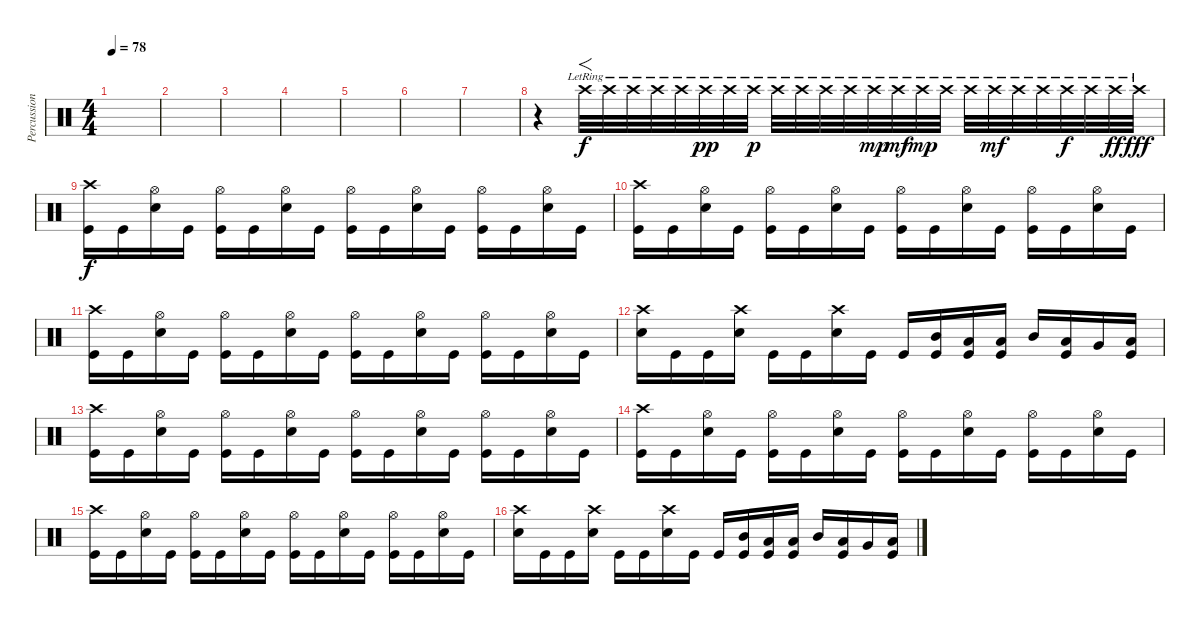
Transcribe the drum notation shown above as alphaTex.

\track ("Percussion" "Percussion") {instrument percussion}
\staff {score}
\articulation defaults
\ts (4 4)
\tempo 78
\clef neutral
\ks c
|
|
|
|
|
|
|
r.4 "Crash high (hit)"{lr}.32{f} "Crash high (hit)"{lr}.32 "Crash high (hit)"{lr}.32 "Crash high (hit)"{lr}.32 "Crash high (hit)"{lr}.32 "Crash high (hit)"{lr}.32{dy pp} "Crash high (hit)"{lr}.32 "Crash high (hit)"{lr}.32{dy p} "Crash high (hit)"{lr}.32 "Crash high (hit)"{lr}.32 "Crash high (hit)"{lr}.32 "Crash high (hit)"{lr}.32 "Crash high (hit)"{lr}.32{dy mp} "Crash high (hit)"{lr}.32{dy mf} "Crash high (hit)"{lr}.32{dy mp} "Crash high (hit)"{lr}.32 "Crash high (hit)"{lr}.32 "Crash high (hit)"{lr}.32{dy mf} "Crash high (hit)"{lr}.32 "Crash high (hit)"{lr}.32 "Crash high (hit)"{lr}.32{dy f} "Crash high (hit)"{lr}.32 "Crash high (hit)"{lr}.32{dy ff} "Crash high (hit)"{lr}.32{dy fff} |
("Crash high (hit)" "Kick (hit)").16{dy f} "Kick (hit)".16 ("Hi-Hat (open)" "Snare (hit) 2").16 "Kick (hit)".16 ("Hi-Hat (open)" "Kick (hit)").16 "Kick (hit)".16 ("Hi-Hat (open)" "Snare (hit) 2").16 "Kick (hit)".16 ("Hi-Hat (open)" "Kick (hit)").16 "Kick (hit)".16 ("Hi-Hat (open)" "Snare (hit) 2").16 "Kick (hit)".16 ("Hi-Hat (open)" "Kick (hit)").16 "Kick (hit)".16 ("Hi-Hat (open)" "Snare (hit) 2").16 "Kick (hit)".16 |
("Crash high (hit)" "Kick (hit)").16 "Kick (hit)".16 ("Hi-Hat (open)" "Snare (hit) 2").16 "Kick (hit)".16 ("Hi-Hat (open)" "Kick (hit)").16 "Kick (hit)".16 ("Hi-Hat (open)" "Snare (hit) 2").16 "Kick (hit)".16 ("Hi-Hat (open)" "Kick (hit)").16 "Kick (hit)".16 ("Hi-Hat (open)" "Snare (hit) 2").16 "Kick (hit)".16 ("Hi-Hat (open)" "Kick (hit)").16 "Kick (hit)".16 ("Hi-Hat (open)" "Snare (hit) 2").16 "Kick (hit)".16 |
("Crash high (hit)" "Kick (hit)").16 "Kick (hit)".16 ("Hi-Hat (open)" "Snare (hit) 2").16 "Kick (hit)".16 ("Hi-Hat (open)" "Kick (hit)").16 "Kick (hit)".16 ("Hi-Hat (open)" "Snare (hit) 2").16 "Kick (hit)".16 ("Hi-Hat (open)" "Kick (hit)").16 "Kick (hit)".16 ("Hi-Hat (open)" "Snare (hit) 2").16 "Kick (hit)".16 ("Hi-Hat (open)" "Kick (hit)").16 "Kick (hit)".16 ("Hi-Hat (open)" "Snare (hit) 2").16 "Kick (hit)".16 |
("Crash high (hit)" "Snare (hit) 2").16 "Kick (hit)".16 "Kick (hit)".16 ("Crash high (hit)" "Snare (hit) 2").16 "Kick (hit)".16 "Kick (hit)".16 ("Crash high (hit)" "Snare (hit) 2").16 "Kick (hit)".16 "Kick (hit)".16{volume 16} ("Mid Tom (hit)" "Kick (hit)").16 ("Low Tom (hit)" "Kick (hit)").16 ("Low Floor Tom (hit)" "Kick (hit)").16 "Mid Tom (hit)".16 ("Low Tom (hit)" "Kick (hit)").16 "Very Low Tom (hit)".16 ("Low Floor Tom (hit)" "Kick (hit)").16 |
("Crash high (hit)" "Kick (hit)").16{volume 12} "Kick (hit)".16 ("Hi-Hat (open)" "Snare (hit) 2").16 "Kick (hit)".16 ("Hi-Hat (open)" "Kick (hit)").16 "Kick (hit)".16 ("Hi-Hat (open)" "Snare (hit) 2").16 "Kick (hit)".16 ("Hi-Hat (open)" "Kick (hit)").16 "Kick (hit)".16 ("Hi-Hat (open)" "Snare (hit) 2").16 "Kick (hit)".16 ("Hi-Hat (open)" "Kick (hit)").16 "Kick (hit)".16 ("Hi-Hat (open)" "Snare (hit) 2").16 "Kick (hit)".16 |
("Crash high (hit)" "Kick (hit)").16 "Kick (hit)".16 ("Hi-Hat (open)" "Snare (hit) 2").16 "Kick (hit)".16 ("Hi-Hat (open)" "Kick (hit)").16 "Kick (hit)".16 ("Hi-Hat (open)" "Snare (hit) 2").16 "Kick (hit)".16 ("Hi-Hat (open)" "Kick (hit)").16 "Kick (hit)".16 ("Hi-Hat (open)" "Snare (hit) 2").16 "Kick (hit)".16 ("Hi-Hat (open)" "Kick (hit)").16 "Kick (hit)".16 ("Hi-Hat (open)" "Snare (hit) 2").16 "Kick (hit)".16 |
("Crash high (hit)" "Kick (hit)").16 "Kick (hit)".16 ("Hi-Hat (open)" "Snare (hit) 2").16 "Kick (hit)".16 ("Hi-Hat (open)" "Kick (hit)").16 "Kick (hit)".16 ("Hi-Hat (open)" "Snare (hit) 2").16 "Kick (hit)".16 ("Hi-Hat (open)" "Kick (hit)").16 "Kick (hit)".16 ("Hi-Hat (open)" "Snare (hit) 2").16 "Kick (hit)".16 ("Hi-Hat (open)" "Kick (hit)").16 "Kick (hit)".16 ("Hi-Hat (open)" "Snare (hit) 2").16 "Kick (hit)".16 |
("Crash high (hit)" "Snare (hit) 2").16 "Kick (hit)".16 "Kick (hit)".16 ("Crash high (hit)" "Snare (hit) 2").16 "Kick (hit)".16 "Kick (hit)".16 ("Crash high (hit)" "Snare (hit) 2").16 "Kick (hit)".16 "Kick (hit)".16{volume 16} ("Mid Tom (hit)" "Kick (hit)").16 ("Low Tom (hit)" "Kick (hit)").16 ("Low Floor Tom (hit)" "Kick (hit)").16 "Mid Tom (hit)".16 ("Low Tom (hit)" "Kick (hit)").16 "Very Low Tom (hit)".16 ("Low Floor Tom (hit)" "Kick (hit)").16
